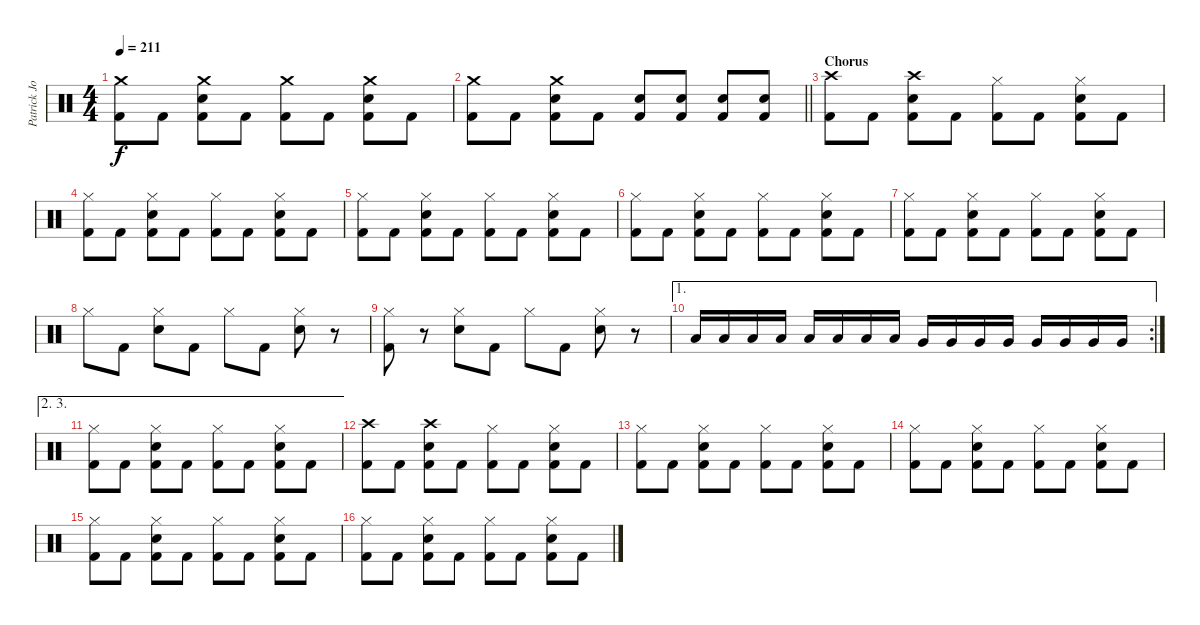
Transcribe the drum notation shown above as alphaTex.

\track ("Patrick Johansson" "Patrick Jo") {instrument percussion}
\staff {score}
\articulation defaults
\ts (4 4)
\tempo 211
\clef neutral
\ks c
("Crash medium (hit)" "Kick (hit) 2").8{dy f} "Kick (hit) 2".8 ("Crash medium (hit)" "Electric Snare (hit)" "Kick (hit) 2").8 "Kick (hit) 2".8 ("Crash medium (hit)" "Kick (hit) 2").8 "Kick (hit) 2".8 ("Crash medium (hit)" "Electric Snare (hit)" "Kick (hit) 2").8 "Kick (hit) 2".8 |
\barLineRight lightlight
("Crash medium (hit)" "Kick (hit) 2").8 "Kick (hit) 2".8 ("Crash medium (hit)" "Electric Snare (hit)" "Kick (hit) 2").8 "Kick (hit) 2".8 ("Electric Snare (hit)" "Kick (hit) 2").8 ("Electric Snare (hit)" "Kick (hit) 2").8 ("Electric Snare (hit)" "Kick (hit) 2").8 ("Electric Snare (hit)" "Kick (hit) 2").8 |
\section ("" "Chorus")
("Crash high (hit)" "Kick (hit) 2").8 "Kick (hit) 2".8 ("Crash high (hit)" "Electric Snare (hit)" "Kick (hit) 2").8 "Kick (hit) 2".8 ("Hi-Hat (closed)" "Kick (hit) 2").8 "Kick (hit) 2".8 ("Electric Snare (hit)" "Hi-Hat (closed)" "Kick (hit) 2").8 "Kick (hit) 2".8 |
("Hi-Hat (closed)" "Kick (hit) 2").8 "Kick (hit) 2".8 ("Electric Snare (hit)" "Hi-Hat (closed)" "Kick (hit) 2").8 "Kick (hit) 2".8 ("Hi-Hat (closed)" "Kick (hit) 2").8 "Kick (hit) 2".8 ("Electric Snare (hit)" "Hi-Hat (closed)" "Kick (hit) 2").8 "Kick (hit) 2".8 |
("Hi-Hat (closed)" "Kick (hit) 2").8 "Kick (hit) 2".8 ("Electric Snare (hit)" "Hi-Hat (closed)" "Kick (hit) 2").8 "Kick (hit) 2".8 ("Hi-Hat (closed)" "Kick (hit) 2").8 "Kick (hit) 2".8 ("Electric Snare (hit)" "Hi-Hat (closed)" "Kick (hit) 2").8 "Kick (hit) 2".8 |
("Hi-Hat (closed)" "Kick (hit) 2").8 "Kick (hit) 2".8 ("Electric Snare (hit)" "Hi-Hat (closed)" "Kick (hit) 2").8 "Kick (hit) 2".8 ("Hi-Hat (closed)" "Kick (hit) 2").8 "Kick (hit) 2".8 ("Electric Snare (hit)" "Hi-Hat (closed)" "Kick (hit) 2").8 "Kick (hit) 2".8 |
("Hi-Hat (closed)" "Kick (hit) 2").8 "Kick (hit) 2".8 ("Electric Snare (hit)" "Hi-Hat (closed)" "Kick (hit) 2").8 "Kick (hit) 2".8 ("Hi-Hat (closed)" "Kick (hit) 2").8 "Kick (hit) 2".8 ("Electric Snare (hit)" "Hi-Hat (closed)" "Kick (hit) 2").8 "Kick (hit) 2".8 |
"Hi-Hat (closed)".8 "Kick (hit) 2".8 ("Electric Snare (hit)" "Hi-Hat (closed)").8 "Kick (hit) 2".8 "Hi-Hat (closed)".8 "Kick (hit) 2".8 ("Electric Snare (hit)" "Hi-Hat (closed)").8 r.8 |
("Hi-Hat (closed)" "Kick (hit) 2").8 r.8 ("Electric Snare (hit)" "Hi-Hat (closed)").8 "Kick (hit) 2".8 "Hi-Hat (closed)".8 "Kick (hit) 2".8 ("Electric Snare (hit)" "Hi-Hat (closed)").8 r.8 |
\ae 1
\rc 2 "Low Tom (hit)".16 "Low Tom (hit)".16 "Low Tom (hit)".16 "Low Tom (hit)".16 "Low Tom (hit)".16 "Low Tom (hit)".16 "Low Tom (hit)".16 "Low Tom (hit)".16 "Very Low Tom (hit)".16 "Very Low Tom (hit)".16 "Very Low Tom (hit)".16 "Very Low Tom (hit)".16 "Very Low Tom (hit)".16 "Very Low Tom (hit)".16 "Very Low Tom (hit)".16 "Very Low Tom (hit)".16
|
\ae (2 3)
("Hi-Hat (closed)" "Kick (hit) 2").8 "Kick (hit) 2".8 ("Electric Snare (hit)" "Hi-Hat (closed)" "Kick (hit) 2").8 "Kick (hit) 2".8 ("Hi-Hat (closed)" "Kick (hit) 2").8 "Kick (hit) 2".8 ("Electric Snare (hit)" "Hi-Hat (closed)" "Kick (hit) 2").8 "Kick (hit) 2".8 |
("Crash high (hit)" "Kick (hit) 2").8 "Kick (hit) 2".8 ("Crash high (hit)" "Electric Snare (hit)" "Kick (hit) 2").8 "Kick (hit) 2".8 ("Hi-Hat (closed)" "Kick (hit) 2").8 "Kick (hit) 2".8 ("Electric Snare (hit)" "Hi-Hat (closed)" "Kick (hit) 2").8 "Kick (hit) 2".8 |
("Hi-Hat (closed)" "Kick (hit) 2").8 "Kick (hit) 2".8 ("Electric Snare (hit)" "Hi-Hat (closed)" "Kick (hit) 2").8 "Kick (hit) 2".8 ("Hi-Hat (closed)" "Kick (hit) 2").8 "Kick (hit) 2".8 ("Electric Snare (hit)" "Hi-Hat (closed)" "Kick (hit) 2").8 "Kick (hit) 2".8 |
("Hi-Hat (closed)" "Kick (hit) 2").8 "Kick (hit) 2".8 ("Electric Snare (hit)" "Hi-Hat (closed)" "Kick (hit) 2").8 "Kick (hit) 2".8 ("Hi-Hat (closed)" "Kick (hit) 2").8 "Kick (hit) 2".8 ("Electric Snare (hit)" "Hi-Hat (closed)" "Kick (hit) 2").8 "Kick (hit) 2".8 |
("Hi-Hat (closed)" "Kick (hit) 2").8 "Kick (hit) 2".8 ("Electric Snare (hit)" "Hi-Hat (closed)" "Kick (hit) 2").8 "Kick (hit) 2".8 ("Hi-Hat (closed)" "Kick (hit) 2").8 "Kick (hit) 2".8 ("Electric Snare (hit)" "Hi-Hat (closed)" "Kick (hit) 2").8 "Kick (hit) 2".8 |
("Hi-Hat (closed)" "Kick (hit) 2").8 "Kick (hit) 2".8 ("Electric Snare (hit)" "Hi-Hat (closed)" "Kick (hit) 2").8 "Kick (hit) 2".8 ("Hi-Hat (closed)" "Kick (hit) 2").8 "Kick (hit) 2".8 ("Electric Snare (hit)" "Hi-Hat (closed)" "Kick (hit) 2").8 "Kick (hit) 2".8
